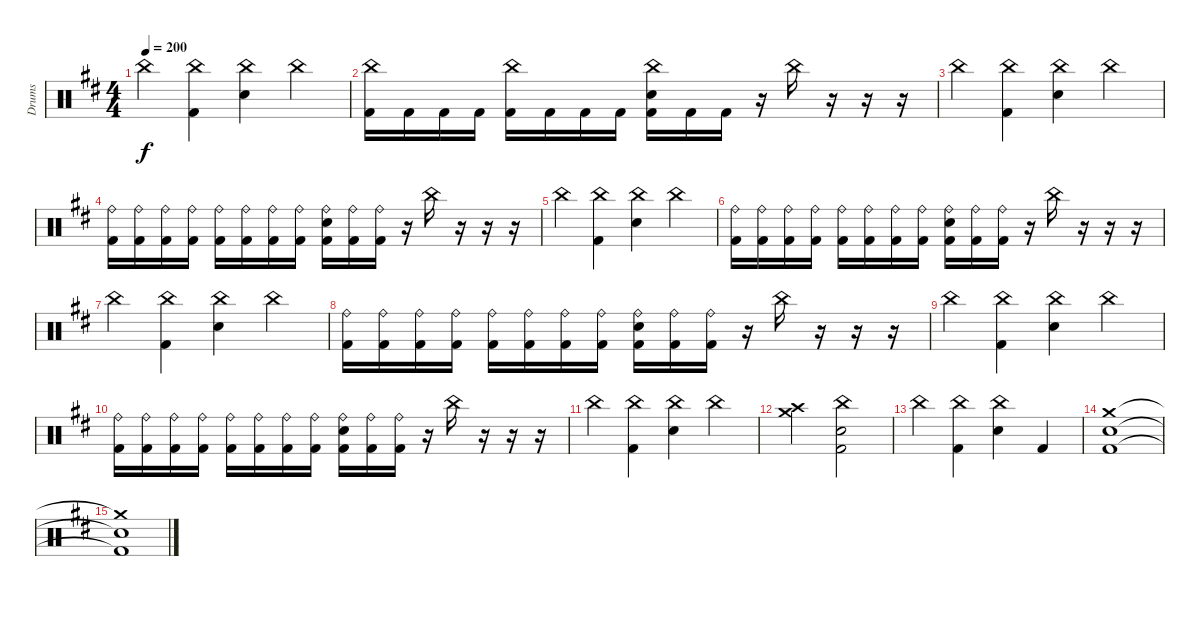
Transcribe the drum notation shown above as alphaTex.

\track ("Drums" "Drums") {instrument percussion}
\staff {score}
\articulation defaults
\ts (4 4)
\tempo 200
\clef neutral
\ks bminor "China (hit)".4{dy f}
("Kick (hit) 2" "China (hit)").4 ("Electric Snare (hit)" "China (hit)").4 "China (hit)".4 |
("Kick (hit) 2" "China (hit)").16 "Kick (hit) 2".16 "Kick (hit) 2".16 "Kick (hit) 2".16 ("Kick (hit) 2" "China (hit)").16 "Kick (hit) 2".16 "Kick (hit) 2".16 "Kick (hit) 2".16 ("Kick (hit) 2" "Electric Snare (hit)" "China (hit)").16 "Kick (hit) 2".16 "Kick (hit) 2".16 r.16 "China (hit)".16 r.16 r.16 r.16 |
"China (hit)".4 ("Kick (hit) 2" "China (hit)").4 ("Electric Snare (hit)" "China (hit)").4 "China (hit)".4 |
("Kick (hit) 2" "Ride (bell)").16 ("Kick (hit) 2" "Ride (bell)").16 ("Kick (hit) 2" "Ride (bell)").16 ("Kick (hit) 2" "Ride (bell)").16 ("Kick (hit) 2" "Ride (bell)").16 ("Kick (hit) 2" "Ride (bell)").16 ("Kick (hit) 2" "Ride (bell)").16 ("Kick (hit) 2" "Ride (bell)").16 ("Kick (hit) 2" "Ride (bell)" "Electric Snare (hit)").16 ("Kick (hit) 2" "Ride (bell)").16 ("Kick (hit) 2" "Ride (bell)").16 r.16 "China (hit)".16 r.16 r.16 r.16 |
"China (hit)".4 ("Kick (hit) 2" "China (hit)").4 ("Electric Snare (hit)" "China (hit)").4 "China (hit)".4 |
("Kick (hit) 2" "Ride (bell)").16 ("Kick (hit) 2" "Ride (bell)").16 ("Kick (hit) 2" "Ride (bell)").16 ("Kick (hit) 2" "Ride (bell)").16 ("Kick (hit) 2" "Ride (bell)").16 ("Kick (hit) 2" "Ride (bell)").16 ("Kick (hit) 2" "Ride (bell)").16 ("Kick (hit) 2" "Ride (bell)").16 ("Kick (hit) 2" "Ride (bell)" "Electric Snare (hit)").16 ("Kick (hit) 2" "Ride (bell)").16 ("Kick (hit) 2" "Ride (bell)").16 r.16 "China (hit)".16 r.16 r.16 r.16 |
"China (hit)".4 ("Kick (hit) 2" "China (hit)").4 ("Electric Snare (hit)" "China (hit)").4 "China (hit)".4 |
("Kick (hit) 2" "Ride (bell)").16 ("Kick (hit) 2" "Ride (bell)").16 ("Kick (hit) 2" "Ride (bell)").16 ("Kick (hit) 2" "Ride (bell)").16 ("Kick (hit) 2" "Ride (bell)").16 ("Kick (hit) 2" "Ride (bell)").16 ("Kick (hit) 2" "Ride (bell)").16 ("Kick (hit) 2" "Ride (bell)").16 ("Kick (hit) 2" "Ride (bell)" "Electric Snare (hit)").16 ("Kick (hit) 2" "Ride (bell)").16 ("Kick (hit) 2" "Ride (bell)").16 r.16 "China (hit)".16 r.16 r.16 r.16 |
"China (hit)".4 ("Kick (hit) 2" "China (hit)").4 ("Electric Snare (hit)" "China (hit)").4 "China (hit)".4 |
("Kick (hit) 2" "Ride (bell)").16 ("Kick (hit) 2" "Ride (bell)").16 ("Kick (hit) 2" "Ride (bell)").16 ("Kick (hit) 2" "Ride (bell)").16 ("Kick (hit) 2" "Ride (bell)").16 ("Kick (hit) 2" "Ride (bell)").16 ("Kick (hit) 2" "Ride (bell)").16 ("Kick (hit) 2" "Ride (bell)").16 ("Kick (hit) 2" "Ride (bell)" "Electric Snare (hit)").16 ("Kick (hit) 2" "Ride (bell)").16 ("Kick (hit) 2" "Ride (bell)").16 r.16 "China (hit)".16 r.16 r.16 r.16 |
"China (hit)".4 ("Kick (hit) 2" "China (hit)").4 ("Electric Snare (hit)" "China (hit)").4 "China (hit)".4 |
("Crash high (hit)" "Crash medium (hit)").2 ("Electric Snare (hit)" "Kick (hit) 2" "China (hit)").2 |
"China (hit)".4 ("Kick (hit) 2" "China (hit)").4 ("Electric Snare (hit)" "China (hit)").4 "Kick (hit) 2".4 |
("Kick (hit) 2" "Electric Snare (hit)" "Crash medium (hit)").1 |
("Kick (hit) 2"{t} "Electric Snare (hit)"{t} "Crash medium (hit)"{t}).1
